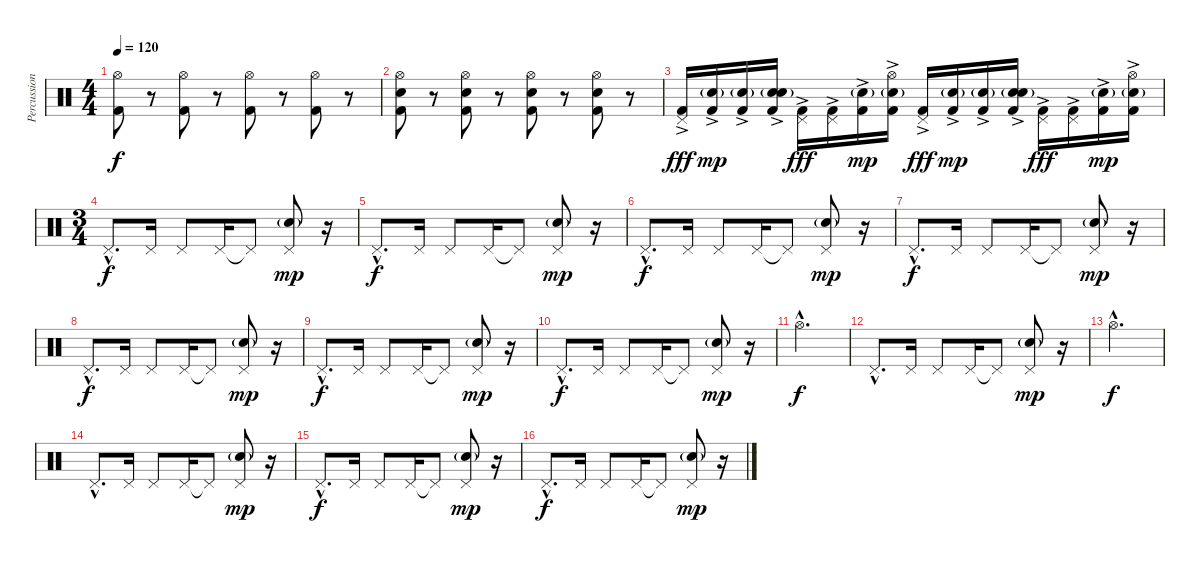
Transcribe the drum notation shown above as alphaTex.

\track ("Percussions" "Percussion") {instrument percussion}
\staff {score}
\articulation defaults
\ts (4 4)
\tempo 120
\clef neutral
\ks c
("Hi-Hat (open)" "Kick (hit) 2").8{dy f} r.8 ("Hi-Hat (open)" "Kick (hit) 2").8 r.8 ("Hi-Hat (open)" "Kick (hit) 2").8 r.8 ("Hi-Hat (open)" "Kick (hit) 2").8 r.8 |
("Hi-Hat (open)" "Kick (hit) 2" "Electric Snare (hit)").8 r.8 ("Hi-Hat (open)" "Kick (hit) 2" "Electric Snare (hit)").8 r.8 ("Hi-Hat (open)" "Kick (hit) 2" "Electric Snare (hit)").8 r.8 ("Hi-Hat (open)" "Kick (hit) 2" "Electric Snare (hit)").8 r.8 |
("Kick (hit) 2"{ac} "Pedal Hi-Hat (hit)").16{dy fff} ("Kick (hit) 2"{ac} "Electric Snare (hit)"{g}).16{dy mp} ("Kick (hit) 2"{ac} "Electric Snare (hit)"{g}).16 ("Kick (hit) 2"{ac} "Electric Snare (hit)"{g} "Snare (hit) 2"{g}).16 ("Kick (hit) 2"{ac} "Pedal Hi-Hat (hit)").16{dy fff} ("Kick (hit) 2"{ac} "Pedal Hi-Hat (hit)").16 ("Kick (hit) 2"{ac} "Electric Snare (hit)"{g}).16{dy mp} ("Kick (hit) 2"{ac} "Electric Snare (hit)"{g} "Hi-Hat (open)").16 ("Kick (hit) 2"{ac} "Pedal Hi-Hat (hit)").16{dy fff} ("Kick (hit) 2"{ac} "Electric Snare (hit)"{g}).16{dy mp} ("Kick (hit) 2"{ac} "Electric Snare (hit)"{g}).16 ("Kick (hit) 2"{ac} "Electric Snare (hit)"{g} "Snare (hit) 2"{g}).16 ("Kick (hit) 2"{ac} "Pedal Hi-Hat (hit)").16{dy fff} ("Kick (hit) 2"{ac} "Pedal Hi-Hat (hit)").16 ("Kick (hit) 2"{ac} "Electric Snare (hit)"{g}).16{dy mp} ("Kick (hit) 2"{ac} "Electric Snare (hit)"{g} "Hi-Hat (open)").16 |
\ts (3 4)
"Pedal Hi-Hat (hit)"{hac}.8{d dy f volume 8} "Pedal Hi-Hat (hit)".16 "Pedal Hi-Hat (hit)".8 "Pedal Hi-Hat (hit)".16 "Pedal Hi-Hat (hit)"{t}.8 ("Pedal Hi-Hat (hit)" "Electric Snare (hit)"{g}).8{dy mp} r.16 |
"Pedal Hi-Hat (hit)"{hac}.8{d dy f volume 8} "Pedal Hi-Hat (hit)".16 "Pedal Hi-Hat (hit)".8 "Pedal Hi-Hat (hit)".16 "Pedal Hi-Hat (hit)"{t}.8 ("Pedal Hi-Hat (hit)" "Electric Snare (hit)"{g}).8{dy mp} r.16 |
"Pedal Hi-Hat (hit)"{hac}.8{d dy f volume 8} "Pedal Hi-Hat (hit)".16 "Pedal Hi-Hat (hit)".8 "Pedal Hi-Hat (hit)".16 "Pedal Hi-Hat (hit)"{t}.8 ("Pedal Hi-Hat (hit)" "Electric Snare (hit)"{g}).8{dy mp} r.16 |
"Pedal Hi-Hat (hit)"{hac}.8{d dy f volume 8} "Pedal Hi-Hat (hit)".16 "Pedal Hi-Hat (hit)".8 "Pedal Hi-Hat (hit)".16 "Pedal Hi-Hat (hit)"{t}.8 ("Pedal Hi-Hat (hit)" "Electric Snare (hit)"{g}).8{dy mp} r.16 |
"Pedal Hi-Hat (hit)"{hac}.8{d dy f volume 8} "Pedal Hi-Hat (hit)".16 "Pedal Hi-Hat (hit)".8 "Pedal Hi-Hat (hit)".16 "Pedal Hi-Hat (hit)"{t}.8 ("Pedal Hi-Hat (hit)" "Electric Snare (hit)"{g}).8{dy mp} r.16 |
"Pedal Hi-Hat (hit)"{hac}.8{d dy f volume 8} "Pedal Hi-Hat (hit)".16 "Pedal Hi-Hat (hit)".8 "Pedal Hi-Hat (hit)".16 "Pedal Hi-Hat (hit)"{t}.8 ("Pedal Hi-Hat (hit)" "Electric Snare (hit)"{g}).8{dy mp} r.16 |
"Pedal Hi-Hat (hit)"{hac}.8{d dy f volume 8} "Pedal Hi-Hat (hit)".16 "Pedal Hi-Hat (hit)".8 "Pedal Hi-Hat (hit)".16 "Pedal Hi-Hat (hit)"{t}.8 ("Pedal Hi-Hat (hit)" "Electric Snare (hit)"{g}).8{dy mp} r.16 |
"Hi-Hat (open)"{hac}.2{d dy f} |
"Pedal Hi-Hat (hit)"{hac}.8{d volume 8} "Pedal Hi-Hat (hit)".16 "Pedal Hi-Hat (hit)".8 "Pedal Hi-Hat (hit)".16 "Pedal Hi-Hat (hit)"{t}.8 ("Pedal Hi-Hat (hit)" "Electric Snare (hit)"{g}).8{dy mp} r.16 |
"Hi-Hat (open)"{hac}.2{d dy f} |
"Pedal Hi-Hat (hit)"{hac}.8{d volume 8} "Pedal Hi-Hat (hit)".16 "Pedal Hi-Hat (hit)".8 "Pedal Hi-Hat (hit)".16 "Pedal Hi-Hat (hit)"{t}.8 ("Pedal Hi-Hat (hit)" "Electric Snare (hit)"{g}).8{dy mp} r.16 |
"Pedal Hi-Hat (hit)"{hac}.8{d dy f volume 8} "Pedal Hi-Hat (hit)".16 "Pedal Hi-Hat (hit)".8 "Pedal Hi-Hat (hit)".16 "Pedal Hi-Hat (hit)"{t}.8 ("Pedal Hi-Hat (hit)" "Electric Snare (hit)"{g}).8{dy mp} r.16 |
"Pedal Hi-Hat (hit)"{hac}.8{d dy f volume 8} "Pedal Hi-Hat (hit)".16 "Pedal Hi-Hat (hit)".8 "Pedal Hi-Hat (hit)".16 "Pedal Hi-Hat (hit)"{t}.8 ("Pedal Hi-Hat (hit)" "Electric Snare (hit)"{g}).8{dy mp} r.16
